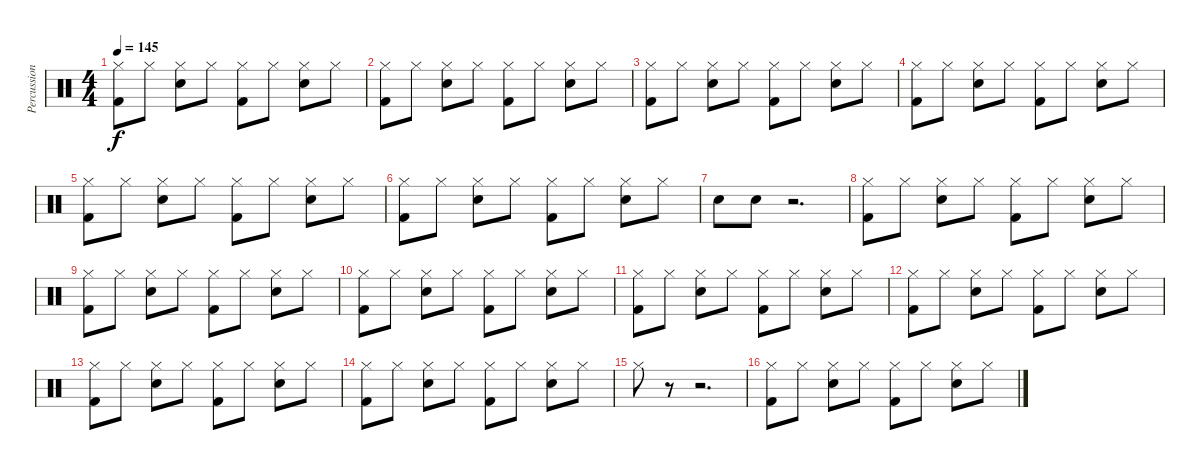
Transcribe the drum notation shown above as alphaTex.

\track ("Percussion (Other)" "Percussion") {instrument percussion}
\staff {score}
\articulation defaults
\ts (4 4)
\tempo 145
\clef neutral
\ks c
("Hi-Hat (closed)" "Kick (hit) 2").8{dy f} "Hi-Hat (closed)".8 ("Hi-Hat (closed)" "Snare (hit) 2").8 "Hi-Hat (closed)".8 ("Hi-Hat (closed)" "Kick (hit) 2").8 "Hi-Hat (closed)".8 ("Hi-Hat (closed)" "Snare (hit) 2").8 "Hi-Hat (closed)".8 |
("Hi-Hat (closed)" "Kick (hit) 2").8 "Hi-Hat (closed)".8 ("Hi-Hat (closed)" "Snare (hit) 2").8 "Hi-Hat (closed)".8 ("Hi-Hat (closed)" "Kick (hit) 2").8 "Hi-Hat (closed)".8 ("Hi-Hat (closed)" "Snare (hit) 2").8 "Hi-Hat (closed)".8 |
("Hi-Hat (closed)" "Kick (hit) 2").8 "Hi-Hat (closed)".8 ("Hi-Hat (closed)" "Snare (hit) 2").8 "Hi-Hat (closed)".8 ("Hi-Hat (closed)" "Kick (hit) 2").8 "Hi-Hat (closed)".8 ("Hi-Hat (closed)" "Snare (hit) 2").8 "Hi-Hat (closed)".8 |
("Hi-Hat (closed)" "Kick (hit) 2").8 "Hi-Hat (closed)".8 ("Hi-Hat (closed)" "Snare (hit) 2").8 "Hi-Hat (closed)".8 ("Hi-Hat (closed)" "Kick (hit) 2").8 "Hi-Hat (closed)".8 ("Hi-Hat (closed)" "Snare (hit) 2").8 "Hi-Hat (closed)".8 |
("Hi-Hat (closed)" "Kick (hit) 2").8 "Hi-Hat (closed)".8 ("Hi-Hat (closed)" "Snare (hit) 2").8 "Hi-Hat (closed)".8 ("Hi-Hat (closed)" "Kick (hit) 2").8 "Hi-Hat (closed)".8 ("Hi-Hat (closed)" "Snare (hit) 2").8 "Hi-Hat (closed)".8 |
("Hi-Hat (closed)" "Kick (hit) 2").8 "Hi-Hat (closed)".8 ("Hi-Hat (closed)" "Snare (hit) 2").8 "Hi-Hat (closed)".8 ("Hi-Hat (closed)" "Kick (hit) 2").8 "Hi-Hat (closed)".8 ("Hi-Hat (closed)" "Snare (hit) 2").8 "Hi-Hat (closed)".8 |
"Snare (hit) 2".8 "Snare (hit) 2".8 r.2{d} |
("Hi-Hat (closed)" "Kick (hit) 2").8 "Hi-Hat (closed)".8 ("Hi-Hat (closed)" "Snare (hit) 2").8 "Hi-Hat (closed)".8 ("Hi-Hat (closed)" "Kick (hit) 2").8 "Hi-Hat (closed)".8 ("Hi-Hat (closed)" "Snare (hit) 2").8 "Hi-Hat (closed)".8 |
("Hi-Hat (closed)" "Kick (hit) 2").8 "Hi-Hat (closed)".8 ("Hi-Hat (closed)" "Snare (hit) 2").8 "Hi-Hat (closed)".8 ("Hi-Hat (closed)" "Kick (hit) 2").8 "Hi-Hat (closed)".8 ("Hi-Hat (closed)" "Snare (hit) 2").8 "Hi-Hat (closed)".8 |
("Hi-Hat (closed)" "Kick (hit) 2").8 "Hi-Hat (closed)".8 ("Hi-Hat (closed)" "Snare (hit) 2").8 "Hi-Hat (closed)".8 ("Hi-Hat (closed)" "Kick (hit) 2").8 "Hi-Hat (closed)".8 ("Hi-Hat (closed)" "Snare (hit) 2").8 "Hi-Hat (closed)".8 |
("Hi-Hat (closed)" "Kick (hit) 2").8 "Hi-Hat (closed)".8 ("Hi-Hat (closed)" "Snare (hit) 2").8 "Hi-Hat (closed)".8 ("Hi-Hat (closed)" "Kick (hit) 2").8 "Hi-Hat (closed)".8 ("Hi-Hat (closed)" "Snare (hit) 2").8 "Hi-Hat (closed)".8 |
("Hi-Hat (closed)" "Kick (hit) 2").8 "Hi-Hat (closed)".8 ("Hi-Hat (closed)" "Snare (hit) 2").8 "Hi-Hat (closed)".8 ("Hi-Hat (closed)" "Kick (hit) 2").8 "Hi-Hat (closed)".8 ("Hi-Hat (closed)" "Snare (hit) 2").8 "Hi-Hat (closed)".8 |
("Hi-Hat (closed)" "Kick (hit) 2").8 "Hi-Hat (closed)".8 ("Hi-Hat (closed)" "Snare (hit) 2").8 "Hi-Hat (closed)".8 ("Hi-Hat (closed)" "Kick (hit) 2").8 "Hi-Hat (closed)".8 ("Hi-Hat (closed)" "Snare (hit) 2").8 "Hi-Hat (closed)".8 |
("Hi-Hat (closed)" "Kick (hit) 2").8 "Hi-Hat (closed)".8 ("Hi-Hat (closed)" "Snare (hit) 2").8 "Hi-Hat (closed)".8 ("Hi-Hat (closed)" "Kick (hit) 2").8 "Hi-Hat (closed)".8 ("Hi-Hat (closed)" "Snare (hit) 2").8 "Hi-Hat (closed)".8 |
"Hi-Hat (closed)".8 r.8 r.2{d} |
("Hi-Hat (closed)" "Kick (hit) 2").8 "Hi-Hat (closed)".8 ("Hi-Hat (closed)" "Snare (hit) 2").8 "Hi-Hat (closed)".8 ("Hi-Hat (closed)" "Kick (hit) 2").8 "Hi-Hat (closed)".8 ("Hi-Hat (closed)" "Snare (hit) 2").8 "Hi-Hat (closed)".8
